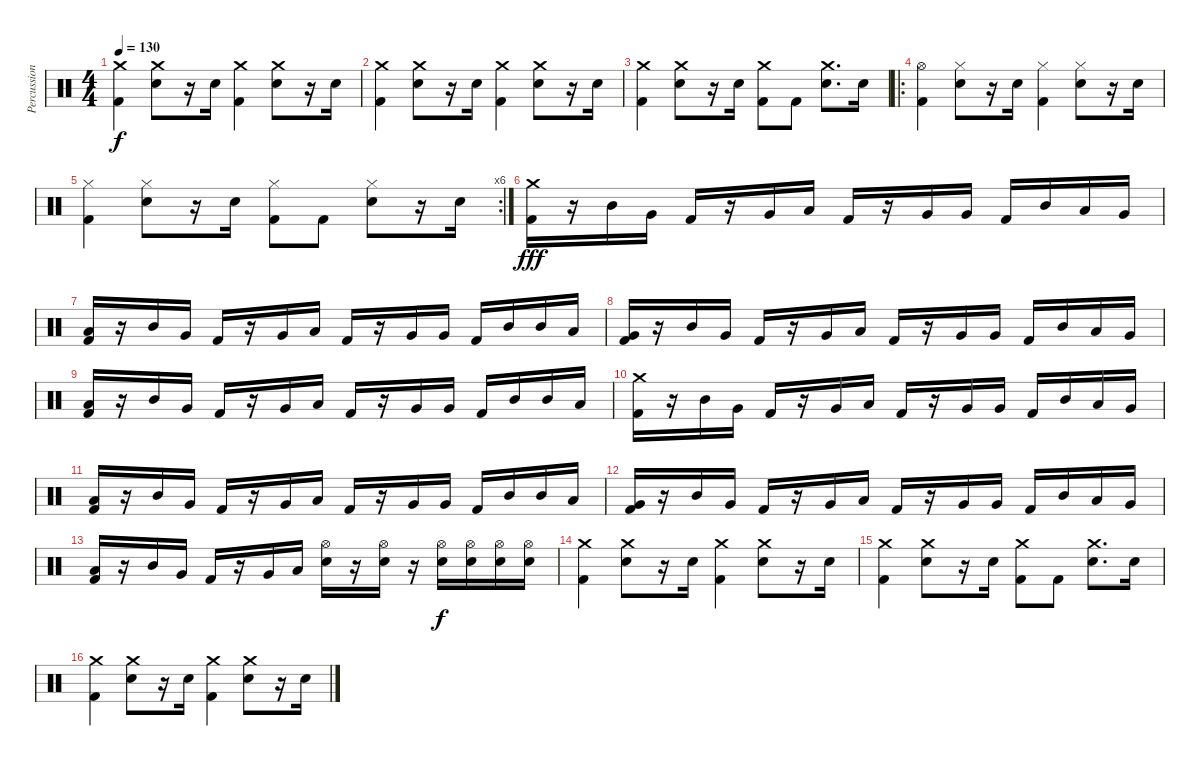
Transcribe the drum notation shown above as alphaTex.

\track ("Percussions" "Percussion") {instrument percussion}
\staff {score}
\articulation defaults
\ts (4 4)
\tempo 130
\clef neutral
\ks c
("Kick (hit) 2" "Crash medium (hit)").4{dy f} ("Electric Snare (hit)" "Crash medium (hit)").8 r.16 "Electric Snare (hit)".16 ("Kick (hit) 2" "Crash medium (hit)").4 ("Electric Snare (hit)" "Crash medium (hit)").8 r.16 "Electric Snare (hit)".16 |
("Kick (hit) 2" "Crash medium (hit)").4 ("Electric Snare (hit)" "Crash medium (hit)").8 r.16 "Electric Snare (hit)".16 ("Kick (hit) 2" "Crash medium (hit)").4 ("Electric Snare (hit)" "Crash medium (hit)").8 r.16 "Electric Snare (hit)".16 |
("Kick (hit) 2" "Crash medium (hit)").4 ("Electric Snare (hit)" "Crash medium (hit)").8 r.16 "Electric Snare (hit)".16 ("Kick (hit) 2" "Crash medium (hit)").8 "Kick (hit) 2".8 ("Electric Snare (hit)" "Crash medium (hit)").8{d} "Electric Snare (hit)".16 |
\ro
("Kick (hit) 2" "Hi-Hat (open)").4 ("Electric Snare (hit)" "Hi-Hat (closed)").8 r.16 "Electric Snare (hit)".16 ("Kick (hit) 2" "Hi-Hat (closed)").4 ("Electric Snare (hit)" "Hi-Hat (closed)").8 r.16 "Electric Snare (hit)".16 |
\rc 6
("Kick (hit) 2" "Hi-Hat (closed)").4 ("Electric Snare (hit)" "Hi-Hat (closed)").8 r.16 "Electric Snare (hit)".16 ("Kick (hit) 2" "Hi-Hat (closed)").8 "Kick (hit) 2".8 ("Electric Snare (hit)" "Hi-Hat (closed)").8 r.16 "Electric Snare (hit)".16 |
("Crash medium (hit)" "Kick (hit) 2").16{dy fff} r.16 "Mid Tom (hit)".16 "Very Low Tom (hit)".16 "Kick (hit) 2".16 r.16 "Very Low Tom (hit)".16 "Low Tom (hit)".16 "Kick (hit) 2".16 r.16 "Very Low Tom (hit)".16 "Very Low Tom (hit)".16 "Kick (hit) 2".16 "Mid Tom (hit)".16 "Low Tom (hit)".16 "Very Low Tom (hit)".16 |
("Low Tom (hit)" "Kick (hit) 2").16 r.16 "Mid Tom (hit)".16 "Very Low Tom (hit)".16 "Kick (hit) 2".16 r.16 "Very Low Tom (hit)".16 "Low Tom (hit)".16 "Kick (hit) 2".16 r.16 "Very Low Tom (hit)".16 "Very Low Tom (hit)".16 "Kick (hit) 2".16 "Mid Tom (hit)".16 "Mid Tom (hit)".16 "Low Tom (hit)".16 |
("Very Low Tom (hit)" "Kick (hit) 2").16 r.16 "Mid Tom (hit)".16 "Very Low Tom (hit)".16 "Kick (hit) 2".16 r.16 "Very Low Tom (hit)".16 "Low Tom (hit)".16 "Kick (hit) 2".16 r.16 "Very Low Tom (hit)".16 "Very Low Tom (hit)".16 "Kick (hit) 2".16 "Mid Tom (hit)".16 "Low Tom (hit)".16 "Very Low Tom (hit)".16 |
("Low Tom (hit)" "Kick (hit) 2").16 r.16 "Mid Tom (hit)".16 "Very Low Tom (hit)".16 "Kick (hit) 2".16 r.16 "Very Low Tom (hit)".16 "Low Tom (hit)".16 "Kick (hit) 2".16 r.16 "Very Low Tom (hit)".16 "Very Low Tom (hit)".16 "Kick (hit) 2".16 "Mid Tom (hit)".16 "Mid Tom (hit)".16 "Low Tom (hit)".16 |
("Crash medium (hit)" "Kick (hit) 2").16 r.16 "Mid Tom (hit)".16 "Very Low Tom (hit)".16 "Kick (hit) 2".16 r.16 "Very Low Tom (hit)".16 "Low Tom (hit)".16 "Kick (hit) 2".16 r.16 "Very Low Tom (hit)".16 "Very Low Tom (hit)".16 "Kick (hit) 2".16 "Mid Tom (hit)".16 "Low Tom (hit)".16 "Very Low Tom (hit)".16 |
("Low Tom (hit)" "Kick (hit) 2").16 r.16 "Mid Tom (hit)".16 "Very Low Tom (hit)".16 "Kick (hit) 2".16 r.16 "Very Low Tom (hit)".16 "Low Tom (hit)".16 "Kick (hit) 2".16 r.16 "Very Low Tom (hit)".16 "Very Low Tom (hit)".16 "Kick (hit) 2".16 "Mid Tom (hit)".16 "Mid Tom (hit)".16 "Low Tom (hit)".16 |
("Very Low Tom (hit)" "Kick (hit) 2").16 r.16 "Mid Tom (hit)".16 "Very Low Tom (hit)".16 "Kick (hit) 2".16 r.16 "Very Low Tom (hit)".16 "Low Tom (hit)".16 "Kick (hit) 2".16 r.16 "Very Low Tom (hit)".16 "Very Low Tom (hit)".16 "Kick (hit) 2".16 "Mid Tom (hit)".16 "Low Tom (hit)".16 "Very Low Tom (hit)".16 |
("Low Tom (hit)" "Kick (hit) 2").16 r.16 "Mid Tom (hit)".16 "Very Low Tom (hit)".16 "Kick (hit) 2".16 r.16 "Very Low Tom (hit)".16 "Low Tom (hit)".16 ("Electric Snare (hit)" "Hi-Hat (open)").16 r.16 ("Electric Snare (hit)" "Hi-Hat (open)").16 r.16 ("Electric Snare (hit)" "Hi-Hat (open)").16{dy f} ("Electric Snare (hit)" "Hi-Hat (open)").16 ("Electric Snare (hit)" "Hi-Hat (open)").16 ("Electric Snare (hit)" "Hi-Hat (open)").16 |
("Kick (hit) 2" "Crash medium (hit)").4 ("Electric Snare (hit)" "Crash medium (hit)").8 r.16 "Electric Snare (hit)".16 ("Kick (hit) 2" "Crash medium (hit)").4 ("Electric Snare (hit)" "Crash medium (hit)").8 r.16 "Electric Snare (hit)".16 |
("Kick (hit) 2" "Crash medium (hit)").4 ("Electric Snare (hit)" "Crash medium (hit)").8 r.16 "Electric Snare (hit)".16 ("Kick (hit) 2" "Crash medium (hit)").8 "Kick (hit) 2".8 ("Electric Snare (hit)" "Crash medium (hit)").8{d} "Electric Snare (hit)".16 |
("Kick (hit) 2" "Crash medium (hit)").4 ("Electric Snare (hit)" "Crash medium (hit)").8 r.16 "Electric Snare (hit)".16 ("Kick (hit) 2" "Crash medium (hit)").4 ("Electric Snare (hit)" "Crash medium (hit)").8 r.16 "Electric Snare (hit)".16
